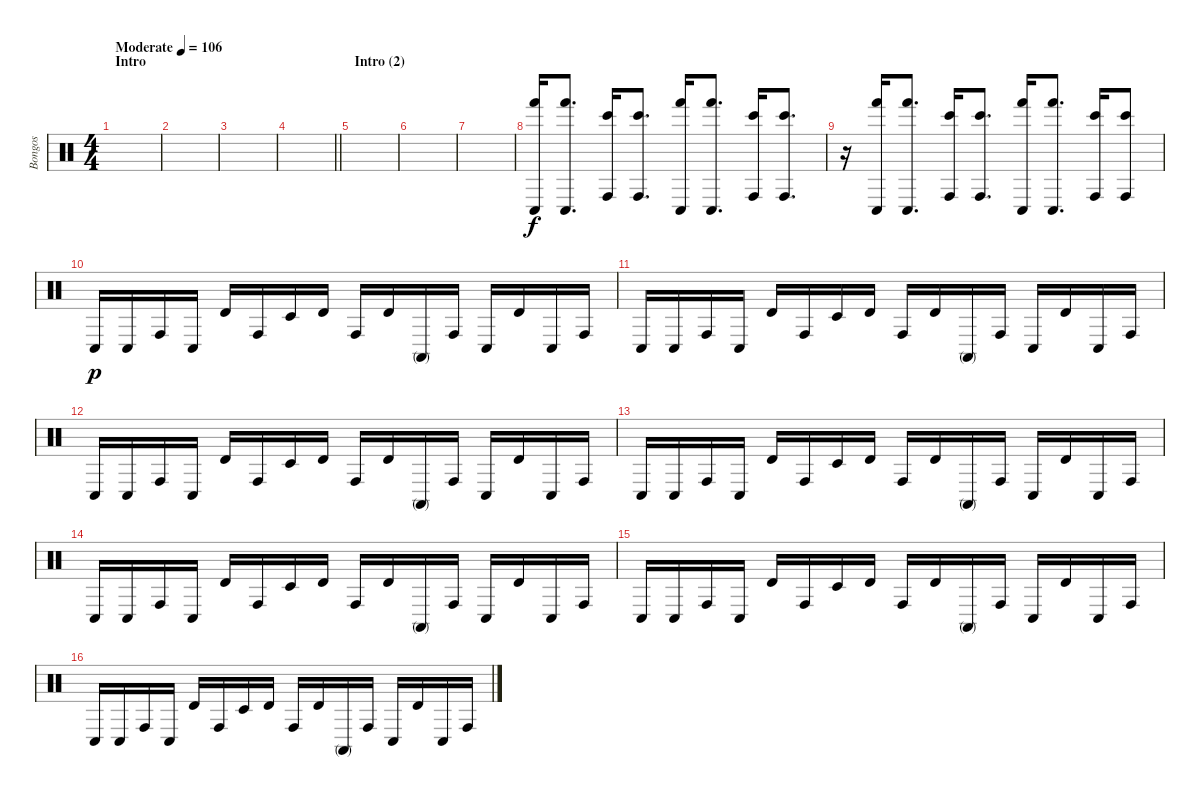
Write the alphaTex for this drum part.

\track ("Bongos" "Bongos") {instrument percussion}
\staff {score}
\articulation defaults
\ts (4 4)
\section ("" "Intro")
\tempo (106 "Moderate")
\clef neutral
\ks c
|
|
|
\barLineRight lightlight
|
\section ("" "Intro (2)")
|
|
|
("Hand (hit)" "Conga low (hit)").16 ("Hand (hit)" "Conga low (hit)").8{d} ("Bongo High (hit)" "Conga high (hit)").16 ("Bongo High (hit)" "Conga high (hit)").8{d} ("Hand (hit)" "Conga low (hit)").16 ("Hand (hit)" "Conga low (hit)").8{d} ("Bongo High (hit)" "Conga high (hit)").16 ("Bongo High (hit)" "Conga high (hit)").8{d} |
r.16 ("Hand (hit)" "Conga low (hit)").16 ("Hand (hit)" "Conga low (hit)").8{d} ("Bongo High (hit)" "Conga high (hit)").16 ("Bongo High (hit)" "Conga high (hit)").8{d} ("Hand (hit)" "Conga low (hit)").16 ("Hand (hit)" "Conga low (hit)").8{d} ("Bongo High (hit)" "Conga high (hit)").16 ("Bongo High (hit)" "Conga high (hit)").8 |
"Conga low (hit)".16{dy p} "Conga low (hit)".16 "Conga high (hit)".16 "Conga low (hit)".16 "Timbale high (hit)".16 "Conga high (hit)".16 "Timbale low (hit)".16 "Timbale high (hit)".16 "Conga high (hit)".16 "Timbale high (hit)".16 "Conga high (mute)".16 "Conga high (hit)".16 "Conga low (hit)".16 "Timbale high (hit)".16 "Conga low (hit)".16 "Conga high (hit)".16 |
"Conga low (hit)".16 "Conga low (hit)".16 "Conga high (hit)".16 "Conga low (hit)".16 "Timbale high (hit)".16 "Conga high (hit)".16 "Timbale low (hit)".16 "Timbale high (hit)".16 "Conga high (hit)".16 "Timbale high (hit)".16 "Conga high (mute)".16 "Conga high (hit)".16 "Conga low (hit)".16 "Timbale high (hit)".16 "Conga low (hit)".16 "Conga high (hit)".16 |
"Conga low (hit)".16 "Conga low (hit)".16 "Conga high (hit)".16 "Conga low (hit)".16 "Timbale high (hit)".16 "Conga high (hit)".16 "Timbale low (hit)".16 "Timbale high (hit)".16 "Conga high (hit)".16 "Timbale high (hit)".16 "Conga high (mute)".16 "Conga high (hit)".16 "Conga low (hit)".16 "Timbale high (hit)".16 "Conga low (hit)".16 "Conga high (hit)".16 |
"Conga low (hit)".16 "Conga low (hit)".16 "Conga high (hit)".16 "Conga low (hit)".16 "Timbale high (hit)".16 "Conga high (hit)".16 "Timbale low (hit)".16 "Timbale high (hit)".16 "Conga high (hit)".16 "Timbale high (hit)".16 "Conga high (mute)".16 "Conga high (hit)".16 "Conga low (hit)".16 "Timbale high (hit)".16 "Conga low (hit)".16 "Conga high (hit)".16 |
"Conga low (hit)".16 "Conga low (hit)".16 "Conga high (hit)".16 "Conga low (hit)".16 "Timbale high (hit)".16 "Conga high (hit)".16 "Timbale low (hit)".16 "Timbale high (hit)".16 "Conga high (hit)".16 "Timbale high (hit)".16 "Conga high (mute)".16 "Conga high (hit)".16 "Conga low (hit)".16 "Timbale high (hit)".16 "Conga low (hit)".16 "Conga high (hit)".16 |
"Conga low (hit)".16 "Conga low (hit)".16 "Conga high (hit)".16 "Conga low (hit)".16 "Timbale high (hit)".16 "Conga high (hit)".16 "Timbale low (hit)".16 "Timbale high (hit)".16 "Conga high (hit)".16 "Timbale high (hit)".16 "Conga high (mute)".16 "Conga high (hit)".16 "Conga low (hit)".16 "Timbale high (hit)".16 "Conga low (hit)".16 "Conga high (hit)".16 |
"Conga low (hit)".16 "Conga low (hit)".16 "Conga high (hit)".16 "Conga low (hit)".16 "Timbale high (hit)".16 "Conga high (hit)".16 "Timbale low (hit)".16 "Timbale high (hit)".16 "Conga high (hit)".16 "Timbale high (hit)".16 "Conga high (mute)".16 "Conga high (hit)".16 "Conga low (hit)".16 "Timbale high (hit)".16 "Conga low (hit)".16 "Conga high (hit)".16
